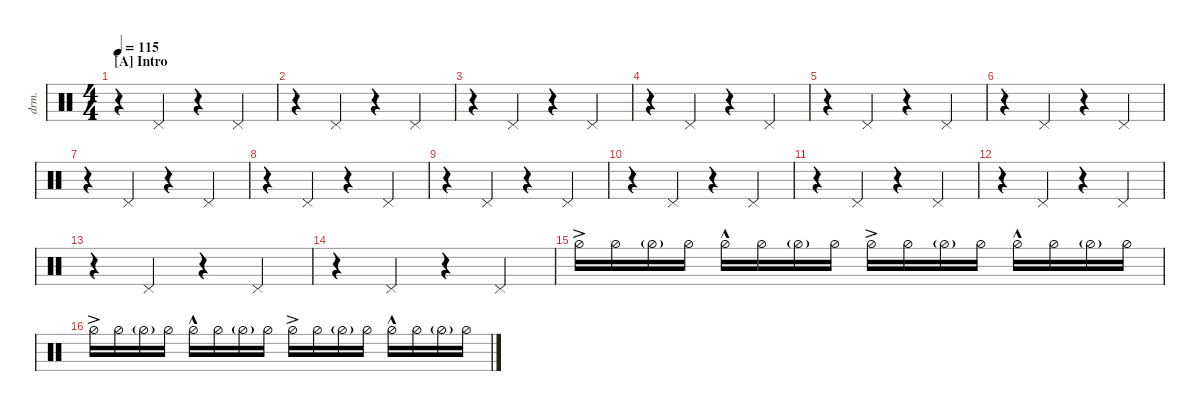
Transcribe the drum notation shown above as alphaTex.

\defaultSystemsLayout 4
\hideDynamics
\bracketExtendMode nobrackets
\otherSystemsTrackNameOrientation horizontal
\track ("Drums" "drm.") {multiBarRest instrument percussion}
\staff
\articulation defaults
\ts (4 4)
\section ("A" "Intro")
\tempo 115
\clef neutral
\ks c
r.4{dy mp} "Pedal Hi-Hat (hit)".4 r.4 "Pedal Hi-Hat (hit)".4{dy mf} |
r.4 "Pedal Hi-Hat (hit)".4 r.4 "Pedal Hi-Hat (hit)".4 |
r.4 "Pedal Hi-Hat (hit)".4{dy mp} r.4 "Pedal Hi-Hat (hit)".4{dy mf} |
r.4 "Pedal Hi-Hat (hit)".4 r.4 "Pedal Hi-Hat (hit)".4 |
r.4 "Pedal Hi-Hat (hit)".4{dy mp} r.4 "Pedal Hi-Hat (hit)".4{dy mf} |
r.4 "Pedal Hi-Hat (hit)".4 r.4 "Pedal Hi-Hat (hit)".4 |
r.4 "Pedal Hi-Hat (hit)".4{dy mp} r.4 "Pedal Hi-Hat (hit)".4{dy mf} |
r.4 "Pedal Hi-Hat (hit)".4 r.4 "Pedal Hi-Hat (hit)".4 |
r.4 "Pedal Hi-Hat (hit)".4{dy mp} r.4 "Pedal Hi-Hat (hit)".4{dy mf} |
r.4 "Pedal Hi-Hat (hit)".4 r.4 "Pedal Hi-Hat (hit)".4 |
r.4 "Pedal Hi-Hat (hit)".4{dy mp} r.4 "Pedal Hi-Hat (hit)".4{dy mf} |
r.4 "Pedal Hi-Hat (hit)".4 r.4 "Pedal Hi-Hat (hit)".4 |
r.4 "Pedal Hi-Hat (hit)".4{dy mp} r.4 "Pedal Hi-Hat (hit)".4{dy mf} |
r.4 "Pedal Hi-Hat (hit)".4 r.4 "Pedal Hi-Hat (hit)".4 |
"Hi-Hat (half)"{ac}.16 "Hi-Hat (half)".16 "Hi-Hat (half)"{g}.16 "Hi-Hat (half)".16 "Hi-Hat (half)"{hac}.16 "Hi-Hat (half)".16 "Hi-Hat (half)"{g}.16 "Hi-Hat (half)".16 "Hi-Hat (half)"{ac}.16 "Hi-Hat (half)".16 "Hi-Hat (half)"{g}.16 "Hi-Hat (half)".16 "Hi-Hat (half)"{hac}.16 "Hi-Hat (half)".16 "Hi-Hat (half)"{g}.16 "Hi-Hat (half)".16 |
"Hi-Hat (half)"{ac}.16 "Hi-Hat (half)".16 "Hi-Hat (half)"{g}.16 "Hi-Hat (half)".16 "Hi-Hat (half)"{hac}.16 "Hi-Hat (half)".16 "Hi-Hat (half)"{g}.16 "Hi-Hat (half)".16 "Hi-Hat (half)"{ac}.16 "Hi-Hat (half)".16 "Hi-Hat (half)"{g}.16 "Hi-Hat (half)".16 "Hi-Hat (half)"{hac}.16 "Hi-Hat (half)".16 "Hi-Hat (half)"{g}.16 "Hi-Hat (half)".16
